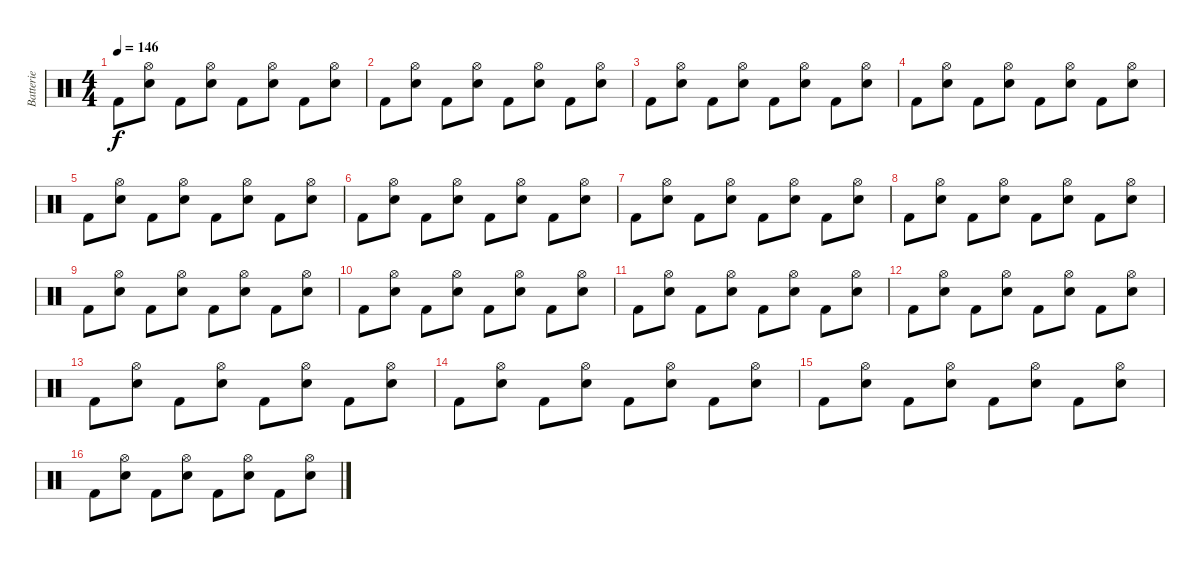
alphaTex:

\track ("Batterie" "Batterie") {instrument percussion}
\staff {score}
\articulation defaults
\ts (4 4)
\tempo 146
\clef neutral
\ks c "Kick (hit) 2".8{dy f}
("Electric Snare (hit)" "Hi-Hat (open)").8 "Kick (hit) 2".8 ("Electric Snare (hit)" "Hi-Hat (open)").8 "Kick (hit) 2".8 ("Electric Snare (hit)" "Hi-Hat (open)").8 "Kick (hit) 2".8 ("Electric Snare (hit)" "Hi-Hat (open)").8 |
"Kick (hit) 2".8 ("Electric Snare (hit)" "Hi-Hat (open)").8 "Kick (hit) 2".8 ("Electric Snare (hit)" "Hi-Hat (open)").8 "Kick (hit) 2".8 ("Electric Snare (hit)" "Hi-Hat (open)").8 "Kick (hit) 2".8 ("Electric Snare (hit)" "Hi-Hat (open)").8 |
"Kick (hit) 2".8 ("Electric Snare (hit)" "Hi-Hat (open)").8 "Kick (hit) 2".8 ("Electric Snare (hit)" "Hi-Hat (open)").8 "Kick (hit) 2".8 ("Electric Snare (hit)" "Hi-Hat (open)").8 "Kick (hit) 2".8 ("Electric Snare (hit)" "Hi-Hat (open)").8 |
"Kick (hit) 2".8 ("Electric Snare (hit)" "Hi-Hat (open)").8 "Kick (hit) 2".8 ("Electric Snare (hit)" "Hi-Hat (open)").8 "Kick (hit) 2".8 ("Electric Snare (hit)" "Hi-Hat (open)").8 "Kick (hit) 2".8 ("Electric Snare (hit)" "Hi-Hat (open)").8 |
"Kick (hit) 2".8 ("Electric Snare (hit)" "Hi-Hat (open)").8 "Kick (hit) 2".8 ("Electric Snare (hit)" "Hi-Hat (open)").8 "Kick (hit) 2".8 ("Electric Snare (hit)" "Hi-Hat (open)").8 "Kick (hit) 2".8 ("Electric Snare (hit)" "Hi-Hat (open)").8 |
"Kick (hit) 2".8 ("Electric Snare (hit)" "Hi-Hat (open)").8 "Kick (hit) 2".8 ("Electric Snare (hit)" "Hi-Hat (open)").8 "Kick (hit) 2".8 ("Electric Snare (hit)" "Hi-Hat (open)").8 "Kick (hit) 2".8 ("Electric Snare (hit)" "Hi-Hat (open)").8 |
"Kick (hit) 2".8 ("Electric Snare (hit)" "Hi-Hat (open)").8 "Kick (hit) 2".8 ("Electric Snare (hit)" "Hi-Hat (open)").8 "Kick (hit) 2".8 ("Electric Snare (hit)" "Hi-Hat (open)").8 "Kick (hit) 2".8 ("Electric Snare (hit)" "Hi-Hat (open)").8 |
"Kick (hit) 2".8 ("Electric Snare (hit)" "Hi-Hat (open)").8 "Kick (hit) 2".8 ("Electric Snare (hit)" "Hi-Hat (open)").8 "Kick (hit) 2".8 ("Electric Snare (hit)" "Hi-Hat (open)").8 "Kick (hit) 2".8 ("Electric Snare (hit)" "Hi-Hat (open)").8 |
"Kick (hit) 2".8 ("Electric Snare (hit)" "Hi-Hat (open)").8 "Kick (hit) 2".8 ("Electric Snare (hit)" "Hi-Hat (open)").8 "Kick (hit) 2".8 ("Electric Snare (hit)" "Hi-Hat (open)").8 "Kick (hit) 2".8 ("Electric Snare (hit)" "Hi-Hat (open)").8 |
"Kick (hit) 2".8 ("Electric Snare (hit)" "Hi-Hat (open)").8 "Kick (hit) 2".8 ("Electric Snare (hit)" "Hi-Hat (open)").8 "Kick (hit) 2".8 ("Electric Snare (hit)" "Hi-Hat (open)").8 "Kick (hit) 2".8 ("Electric Snare (hit)" "Hi-Hat (open)").8 |
"Kick (hit) 2".8 ("Electric Snare (hit)" "Hi-Hat (open)").8 "Kick (hit) 2".8 ("Electric Snare (hit)" "Hi-Hat (open)").8 "Kick (hit) 2".8 ("Electric Snare (hit)" "Hi-Hat (open)").8 "Kick (hit) 2".8 ("Electric Snare (hit)" "Hi-Hat (open)").8 |
"Kick (hit) 2".8 ("Electric Snare (hit)" "Hi-Hat (open)").8 "Kick (hit) 2".8 ("Electric Snare (hit)" "Hi-Hat (open)").8 "Kick (hit) 2".8 ("Electric Snare (hit)" "Hi-Hat (open)").8 "Kick (hit) 2".8 ("Electric Snare (hit)" "Hi-Hat (open)").8 |
"Kick (hit) 2".8 ("Electric Snare (hit)" "Hi-Hat (open)").8 "Kick (hit) 2".8 ("Electric Snare (hit)" "Hi-Hat (open)").8 "Kick (hit) 2".8 ("Electric Snare (hit)" "Hi-Hat (open)").8 "Kick (hit) 2".8 ("Electric Snare (hit)" "Hi-Hat (open)").8 |
"Kick (hit) 2".8 ("Electric Snare (hit)" "Hi-Hat (open)").8 "Kick (hit) 2".8 ("Electric Snare (hit)" "Hi-Hat (open)").8 "Kick (hit) 2".8 ("Electric Snare (hit)" "Hi-Hat (open)").8 "Kick (hit) 2".8 ("Electric Snare (hit)" "Hi-Hat (open)").8 |
"Kick (hit) 2".8 ("Electric Snare (hit)" "Hi-Hat (open)").8 "Kick (hit) 2".8 ("Electric Snare (hit)" "Hi-Hat (open)").8 "Kick (hit) 2".8 ("Electric Snare (hit)" "Hi-Hat (open)").8 "Kick (hit) 2".8 ("Electric Snare (hit)" "Hi-Hat (open)").8 |
"Kick (hit) 2".8 ("Electric Snare (hit)" "Hi-Hat (open)").8 "Kick (hit) 2".8 ("Electric Snare (hit)" "Hi-Hat (open)").8 "Kick (hit) 2".8 ("Electric Snare (hit)" "Hi-Hat (open)").8 "Kick (hit) 2".8 ("Electric Snare (hit)" "Hi-Hat (open)").8
